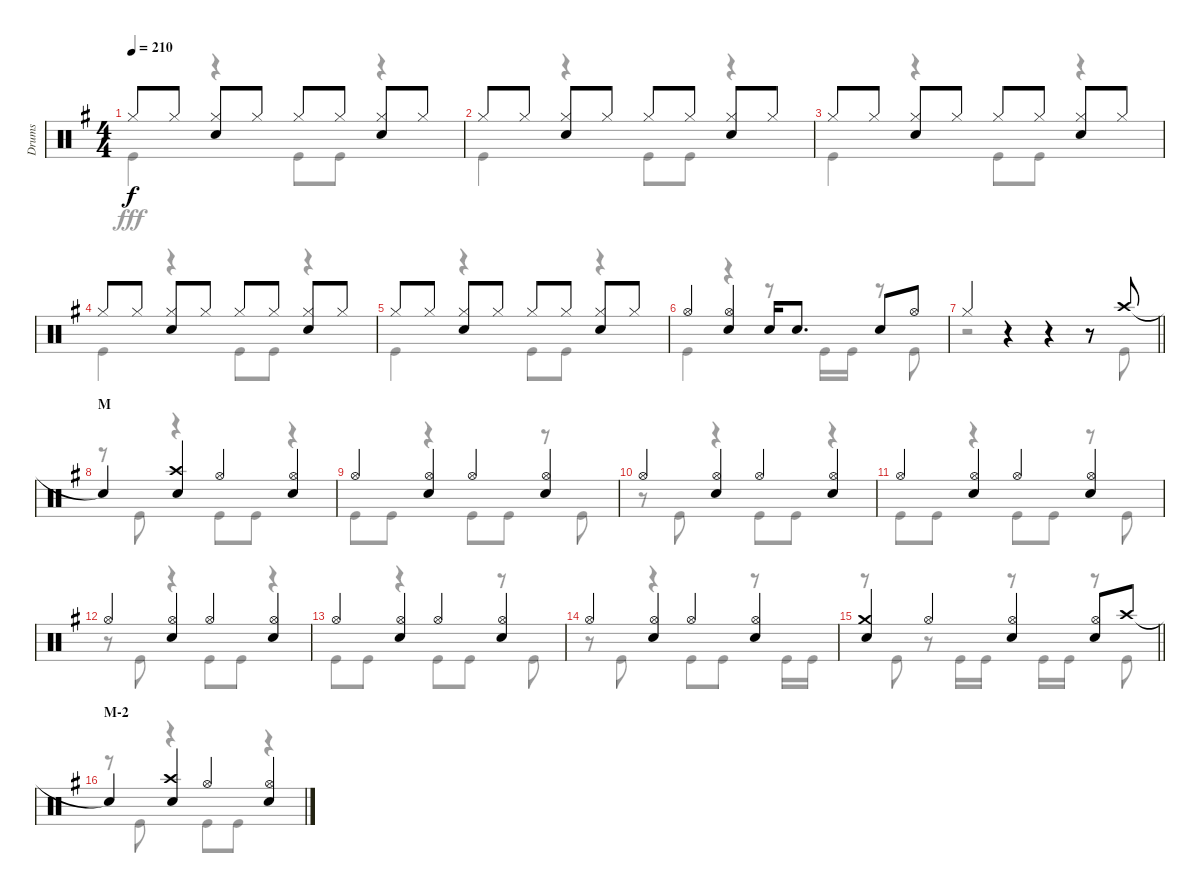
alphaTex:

\track ("Drums" "Drums") {instrument percussion}
\staff {score}
\articulation defaults
\voice
\ts (4 4)
\tempo 210
\clef neutral
\ks g "Hi-Hat (closed)".8{dy f} "Hi-Hat (closed)".8
("Hi-Hat (closed)" "Snare (hit) 2").8 "Hi-Hat (closed)".8 "Hi-Hat (closed)".8 "Hi-Hat (closed)".8 ("Hi-Hat (closed)" "Snare (hit) 2").8 "Hi-Hat (closed)".8 |
"Hi-Hat (closed)".8 "Hi-Hat (closed)".8 ("Hi-Hat (closed)" "Snare (hit) 2").8 "Hi-Hat (closed)".8 "Hi-Hat (closed)".8 "Hi-Hat (closed)".8 ("Hi-Hat (closed)" "Snare (hit) 2").8 "Hi-Hat (closed)".8 |
"Hi-Hat (closed)".8 "Hi-Hat (closed)".8 ("Hi-Hat (closed)" "Snare (hit) 2").8 "Hi-Hat (closed)".8 "Hi-Hat (closed)".8 "Hi-Hat (closed)".8 ("Hi-Hat (closed)" "Snare (hit) 2").8 "Hi-Hat (closed)".8 |
"Hi-Hat (closed)".8 "Hi-Hat (closed)".8 ("Hi-Hat (closed)" "Snare (hit) 2").8 "Hi-Hat (closed)".8 "Hi-Hat (closed)".8 "Hi-Hat (closed)".8 ("Hi-Hat (closed)" "Snare (hit) 2").8 "Hi-Hat (closed)".8 |
"Hi-Hat (closed)".8 "Hi-Hat (closed)".8 ("Hi-Hat (closed)" "Snare (hit) 2").8 "Hi-Hat (closed)".8 "Hi-Hat (closed)".8 "Hi-Hat (closed)".8 ("Hi-Hat (closed)" "Snare (hit) 2").8 "Hi-Hat (closed)".8 |
"Hi-Hat (open)".4 ("Hi-Hat (open)" "Snare (hit) 2").4 "Snare (hit) 2".16 "Snare (hit) 2".8{d} "Snare (hit) 2".8 "Hi-Hat (open)".8 |
\barLineRight lightlight "Hi-Hat (closed)".4
r.4 r.4 r.8 "Crash high (hit)".8 |
\section ("" "M")
"Snare (hit)"{t}.4 ("Crash high (hit)" "Snare (hit) 2").4 "Hi-Hat (open)".4 ("Hi-Hat (open)" "Snare (hit) 2").4 |
"Hi-Hat (open)".4 ("Hi-Hat (open)" "Snare (hit) 2").4 "Hi-Hat (open)".4 ("Hi-Hat (open)" "Snare (hit) 2").4 |
"Hi-Hat (open)".4 ("Hi-Hat (open)" "Snare (hit) 2").4 "Hi-Hat (open)".4 ("Hi-Hat (open)" "Snare (hit) 2").4 |
"Hi-Hat (open)".4 ("Hi-Hat (open)" "Snare (hit) 2").4 "Hi-Hat (open)".4 ("Hi-Hat (open)" "Snare (hit) 2").4 |
"Hi-Hat (open)".4 ("Hi-Hat (open)" "Snare (hit) 2").4 "Hi-Hat (open)".4 ("Hi-Hat (open)" "Snare (hit) 2").4 |
"Hi-Hat (open)".4 ("Hi-Hat (open)" "Snare (hit) 2").4 "Hi-Hat (open)".4 ("Hi-Hat (open)" "Snare (hit) 2").4 |
"Hi-Hat (open)".4 ("Hi-Hat (open)" "Snare (hit) 2").4 "Hi-Hat (open)".4 ("Hi-Hat (open)" "Snare (hit) 2").4 |
\barLineRight lightlight
("Crash medium (hit)" "Snare (hit) 2").4 "Hi-Hat (open)".4 ("Hi-Hat (open)" "Snare (hit) 2").4 ("Hi-Hat (open)" "Snare (hit) 2").8 "Crash high (hit)".8 |
\section ("" "M-2")
"Snare (hit)"{t}.4 ("Crash high (hit)" "Snare (hit) 2").4 "Hi-Hat (open)".4 ("Hi-Hat (open)" "Snare (hit) 2").4
\voice
\clef neutral
\ottava regular
\simile none
\ks g "Kick (hit)".4{dy fff}
r.4 "Kick (hit)".8 "Kick (hit)".8 r.4 |
"Kick (hit)".4 r.4 "Kick (hit)".8 "Kick (hit)".8 r.4 |
"Kick (hit)".4 r.4 "Kick (hit)".8 "Kick (hit)".8 r.4 |
"Kick (hit)".4 r.4 "Kick (hit)".8 "Kick (hit)".8 r.4 |
"Kick (hit)".4 r.4 "Kick (hit)".8 "Kick (hit)".8 r.4 |
"Kick (hit)".4 r.4 r.8 "Kick (hit)".16 "Kick (hit)".16 r.8 "Kick (hit)".8 |
\barLineRight lightlight
r.2 r.4 r.8 "Kick (hit)".8 |
r.8 "Kick (hit)".8 r.4 "Kick (hit)".8 "Kick (hit)".8 r.4 |
"Kick (hit)".8 "Kick (hit)".8 r.4 "Kick (hit)".8 "Kick (hit)".8 r.8 "Kick (hit)".8 |
r.8 "Kick (hit)".8 r.4 "Kick (hit)".8 "Kick (hit)".8 r.4 |
"Kick (hit)".8 "Kick (hit)".8 r.4 "Kick (hit)".8 "Kick (hit)".8 r.8 "Kick (hit)".8 |
r.8 "Kick (hit)".8 r.4 "Kick (hit)".8 "Kick (hit)".8 r.4 |
"Kick (hit)".8 "Kick (hit)".8 r.4 "Kick (hit)".8 "Kick (hit)".8 r.8 "Kick (hit)".8 |
r.8 "Kick (hit)".8 r.4 "Kick (hit)".8 "Kick (hit)".8 r.8 "Kick (hit)".16 "Kick (hit)".16 |
\barLineRight lightlight
r.8 "Kick (hit)".8 r.8 "Kick (hit)".16 "Kick (hit)".16 r.8 "Kick (hit)".16 "Kick (hit)".16 r.8 "Kick (hit)".8 |
r.8 "Kick (hit)".8 r.4 "Kick (hit)".8 "Kick (hit)".8 r.4
